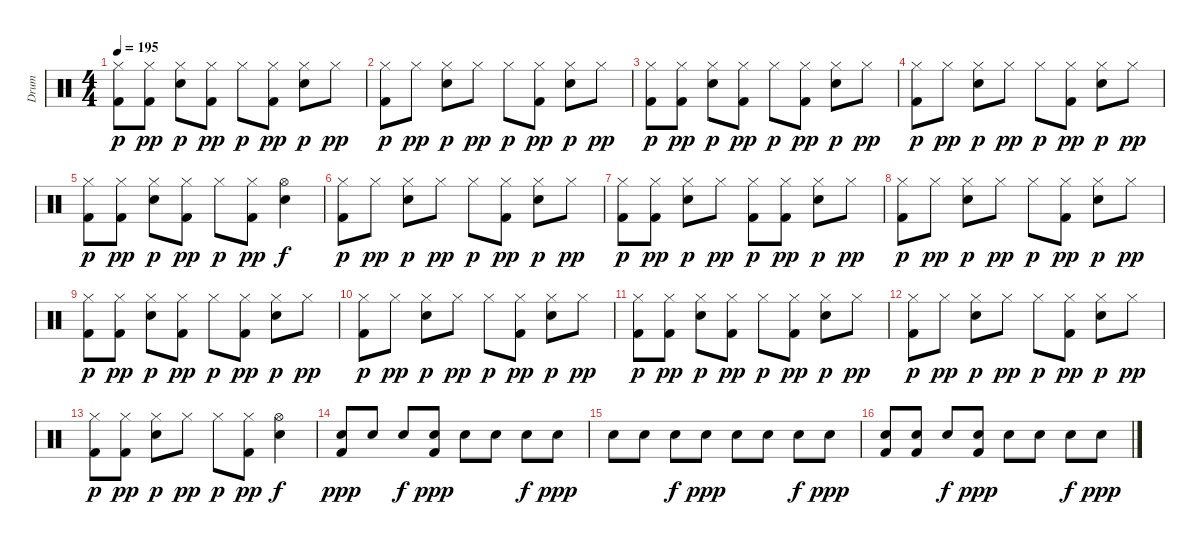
\track ("Drum" "Drum") {instrument percussion}
\staff {score}
\articulation defaults
\ts (4 4)
\tempo 195
\clef neutral
\ks c
("Hi-Hat (closed)" "Kick (hit) 2").8{dy p} ("Hi-Hat (closed)" "Kick (hit) 2").8{dy pp} ("Hi-Hat (closed)" "Electric Snare (hit)").8{dy p} ("Hi-Hat (closed)" "Kick (hit) 2").8{dy pp} "Hi-Hat (closed)".8{dy p} ("Hi-Hat (closed)" "Kick (hit) 2").8{dy pp} ("Hi-Hat (closed)" "Electric Snare (hit)").8{dy p} "Hi-Hat (closed)".8{dy pp} |
("Hi-Hat (closed)" "Kick (hit) 2").8{dy p} "Hi-Hat (closed)".8{dy pp} ("Hi-Hat (closed)" "Electric Snare (hit)").8{dy p} "Hi-Hat (closed)".8{dy pp} "Hi-Hat (closed)".8{dy p} ("Hi-Hat (closed)" "Kick (hit) 2").8{dy pp} ("Hi-Hat (closed)" "Electric Snare (hit)").8{dy p} "Hi-Hat (closed)".8{dy pp} |
("Hi-Hat (closed)" "Kick (hit) 2").8{dy p} ("Hi-Hat (closed)" "Kick (hit) 2").8{dy pp} ("Hi-Hat (closed)" "Electric Snare (hit)").8{dy p} ("Hi-Hat (closed)" "Kick (hit) 2").8{dy pp} "Hi-Hat (closed)".8{dy p} ("Hi-Hat (closed)" "Kick (hit) 2").8{dy pp} ("Hi-Hat (closed)" "Electric Snare (hit)").8{dy p} "Hi-Hat (closed)".8{dy pp} |
("Hi-Hat (closed)" "Kick (hit) 2").8{dy p} "Hi-Hat (closed)".8{dy pp} ("Hi-Hat (closed)" "Electric Snare (hit)").8{dy p} "Hi-Hat (closed)".8{dy pp} "Hi-Hat (closed)".8{dy p} ("Hi-Hat (closed)" "Kick (hit) 2").8{dy pp} ("Hi-Hat (closed)" "Electric Snare (hit)").8{dy p} "Hi-Hat (closed)".8{dy pp} |
("Hi-Hat (closed)" "Kick (hit) 2").8{dy p} ("Hi-Hat (closed)" "Kick (hit) 2").8{dy pp} ("Hi-Hat (closed)" "Electric Snare (hit)").8{dy p} ("Hi-Hat (closed)" "Kick (hit) 2").8{dy pp} "Hi-Hat (closed)".8{dy p} ("Hi-Hat (closed)" "Kick (hit) 2").8{dy pp} ("Hi-Hat (open)" "Electric Snare (hit)").4{dy f} |
("Hi-Hat (closed)" "Kick (hit) 2").8{dy p} "Hi-Hat (closed)".8{dy pp} ("Hi-Hat (closed)" "Electric Snare (hit)").8{dy p} "Hi-Hat (closed)".8{dy pp} "Hi-Hat (closed)".8{dy p} ("Hi-Hat (closed)" "Kick (hit) 2").8{dy pp} ("Hi-Hat (closed)" "Electric Snare (hit)").8{dy p} "Hi-Hat (closed)".8{dy pp} |
("Hi-Hat (closed)" "Kick (hit) 2").8{dy p} ("Hi-Hat (closed)" "Kick (hit) 2").8{dy pp} ("Hi-Hat (closed)" "Electric Snare (hit)").8{dy p} "Hi-Hat (closed)".8{dy pp} ("Hi-Hat (closed)" "Kick (hit) 2").8{dy p} ("Hi-Hat (closed)" "Kick (hit) 2").8{dy pp} ("Hi-Hat (closed)" "Electric Snare (hit)").8{dy p} "Hi-Hat (closed)".8{dy pp} |
("Hi-Hat (closed)" "Kick (hit) 2").8{dy p} "Hi-Hat (closed)".8{dy pp} ("Hi-Hat (closed)" "Electric Snare (hit)").8{dy p} "Hi-Hat (closed)".8{dy pp} "Hi-Hat (closed)".8{dy p} ("Hi-Hat (closed)" "Kick (hit) 2").8{dy pp} ("Hi-Hat (closed)" "Electric Snare (hit)").8{dy p} "Hi-Hat (closed)".8{dy pp} |
("Hi-Hat (closed)" "Kick (hit) 2").8{dy p} ("Hi-Hat (closed)" "Kick (hit) 2").8{dy pp} ("Hi-Hat (closed)" "Electric Snare (hit)").8{dy p} ("Hi-Hat (closed)" "Kick (hit) 2").8{dy pp} "Hi-Hat (closed)".8{dy p} ("Hi-Hat (closed)" "Kick (hit) 2").8{dy pp} ("Hi-Hat (closed)" "Electric Snare (hit)").8{dy p} "Hi-Hat (closed)".8{dy pp} |
("Hi-Hat (closed)" "Kick (hit) 2").8{dy p} "Hi-Hat (closed)".8{dy pp} ("Hi-Hat (closed)" "Electric Snare (hit)").8{dy p} "Hi-Hat (closed)".8{dy pp} "Hi-Hat (closed)".8{dy p} ("Hi-Hat (closed)" "Kick (hit) 2").8{dy pp} ("Hi-Hat (closed)" "Electric Snare (hit)").8{dy p} "Hi-Hat (closed)".8{dy pp} |
("Hi-Hat (closed)" "Kick (hit) 2").8{dy p} ("Hi-Hat (closed)" "Kick (hit) 2").8{dy pp} ("Hi-Hat (closed)" "Electric Snare (hit)").8{dy p} ("Hi-Hat (closed)" "Kick (hit) 2").8{dy pp} "Hi-Hat (closed)".8{dy p} ("Hi-Hat (closed)" "Kick (hit) 2").8{dy pp} ("Hi-Hat (closed)" "Electric Snare (hit)").8{dy p} "Hi-Hat (closed)".8{dy pp} |
("Hi-Hat (closed)" "Kick (hit) 2").8{dy p} "Hi-Hat (closed)".8{dy pp} ("Hi-Hat (closed)" "Electric Snare (hit)").8{dy p} "Hi-Hat (closed)".8{dy pp} "Hi-Hat (closed)".8{dy p} ("Hi-Hat (closed)" "Kick (hit) 2").8{dy pp} ("Hi-Hat (closed)" "Electric Snare (hit)").8{dy p} "Hi-Hat (closed)".8{dy pp} |
("Hi-Hat (closed)" "Kick (hit) 2").8{dy p} ("Hi-Hat (closed)" "Kick (hit) 2").8{dy pp} ("Hi-Hat (closed)" "Electric Snare (hit)").8{dy p} "Hi-Hat (closed)".8{dy pp} "Hi-Hat (closed)".8{dy p} ("Hi-Hat (closed)" "Kick (hit) 2").8{dy pp} ("Hi-Hat (open)" "Electric Snare (hit)").4{dy f} |
("Electric Snare (hit)" "Kick (hit) 2").8{dy ppp} "Electric Snare (hit)".8 "Electric Snare (hit)".8{dy f} ("Electric Snare (hit)" "Kick (hit) 2").8{dy ppp} "Electric Snare (hit)".8 "Electric Snare (hit)".8 "Electric Snare (hit)".8{dy f} "Electric Snare (hit)".8{dy ppp} |
"Electric Snare (hit)".8 "Electric Snare (hit)".8 "Electric Snare (hit)".8{dy f} "Electric Snare (hit)".8{dy ppp} "Electric Snare (hit)".8 "Electric Snare (hit)".8 "Electric Snare (hit)".8{dy f} "Electric Snare (hit)".8{dy ppp} |
("Electric Snare (hit)" "Kick (hit) 2").8 ("Electric Snare (hit)" "Kick (hit) 2").8 "Electric Snare (hit)".8{dy f} ("Electric Snare (hit)" "Kick (hit) 2").8{dy ppp} "Electric Snare (hit)".8 "Electric Snare (hit)".8 "Electric Snare (hit)".8{dy f} "Electric Snare (hit)".8{dy ppp}
